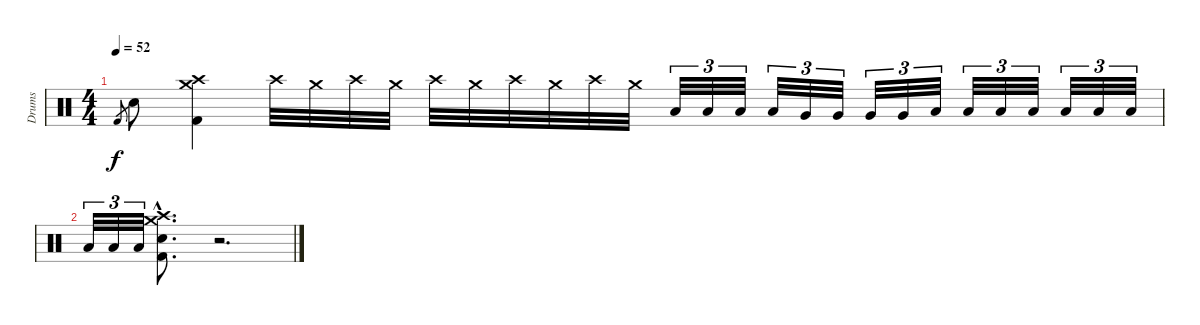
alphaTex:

\track ("Drums" "Drums") {instrument percussion}
\staff {score}
\articulation defaults
\ts (4 4)
\tempo 52
\clef neutral
\ks c "Kick (hit) 2".8{gr dy f} "Electric Snare (hit)".8
("Crash medium (hit)" "Crash high (hit)" "Kick (hit) 2").4 "Crash high (hit)".32 "Crash medium (hit)".32 "Crash high (hit)".32 "Crash medium (hit)".32 "Crash high (hit)".32 "Crash medium (hit)".32 "Crash high (hit)".32 "Crash medium (hit)".32 "Crash high (hit)".32 "Crash medium (hit)".32 "Low Tom (hit)".32{tu (3 2)} "Low Tom (hit)".32{tu (3 2)} "Low Tom (hit)".32{tu (3 2)} "Low Tom (hit)".32{tu (3 2)} "Very Low Tom (hit)".32{tu (3 2)} "Very Low Tom (hit)".32{tu (3 2)} "Very Low Tom (hit)".32{tu (3 2)} "Very Low Tom (hit)".32{tu (3 2)} "Low Floor Tom (hit)".32{tu (3 2)} "Low Floor Tom (hit)".32{tu (3 2)} "Low Floor Tom (hit)".32{tu (3 2)} "Low Floor Tom (hit)".32{tu (3 2)} "Low Tom (hit)".32{tu (3 2)} "Low Tom (hit)".32{tu (3 2)} "Low Tom (hit)".32{tu (3 2)} |
"Low Floor Tom (hit)".32{tu (3 2)} "Low Floor Tom (hit)".32{tu (3 2)} "Low Floor Tom (hit)".32{tu (3 2)} ("Crash medium (hit)"{hac} "Crash high (hit)"{hac} "Electric Snare (hit)"{hac} "Kick (hit) 2"{hac}).8{d} r.2{d}
